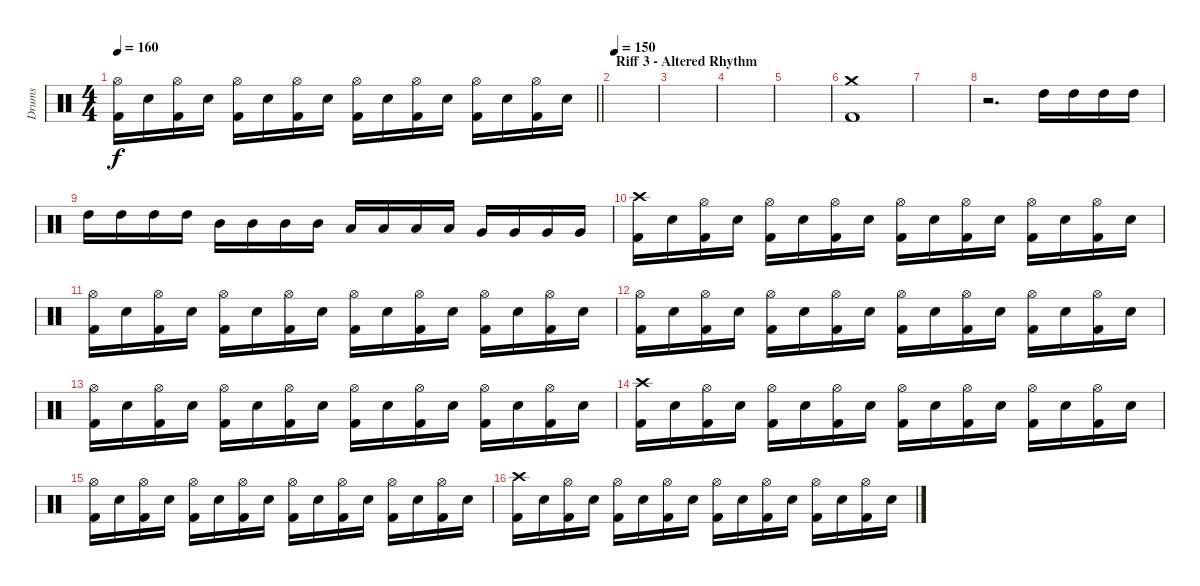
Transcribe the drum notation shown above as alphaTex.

\track ("Drums" "Drums") {instrument percussion}
\staff {score}
\articulation defaults
\ts (4 4)
\tempo 160
\clef neutral
\barLineRight lightlight
\ks c
("Hi-Hat (open)" "Kick (hit) 2").16{dy f} "Electric Snare (hit)".16 ("Hi-Hat (open)" "Kick (hit) 2").16 "Electric Snare (hit)".16 ("Hi-Hat (open)" "Kick (hit) 2").16 "Electric Snare (hit)".16 ("Hi-Hat (open)" "Kick (hit) 2").16 "Electric Snare (hit)".16 ("Hi-Hat (open)" "Kick (hit) 2").16 "Electric Snare (hit)".16 ("Hi-Hat (open)" "Kick (hit) 2").16 "Electric Snare (hit)".16 ("Hi-Hat (open)" "Kick (hit) 2").16 "Electric Snare (hit)".16 ("Hi-Hat (open)" "Kick (hit) 2").16 "Electric Snare (hit)".16 |
\section ("" "Riff 3 - Altered Rhythm")
\tempo 150
|
|
|
|
("Crash medium (hit)" "Kick (hit) 2").1 |
|
r.2{d} "High Tom (hit)".16 "High Tom (hit)".16 "High Tom (hit)".16 "High Tom (hit)".16 |
"High Tom (hit)".16 "High Tom (hit)".16 "High Tom (hit)".16 "High Tom (hit)".16 "Mid Tom (hit)".16 "Mid Tom (hit)".16 "Mid Tom (hit)".16 "Mid Tom (hit)".16 "Low Tom (hit)".16 "Low Tom (hit)".16 "Low Tom (hit)".16 "Low Tom (hit)".16 "Very Low Tom (hit)".16 "Very Low Tom (hit)".16 "Very Low Tom (hit)".16 "Very Low Tom (hit)".16 |
("Crash high (hit)" "Kick (hit) 2").16 "Electric Snare (hit)".16 ("Hi-Hat (open)" "Kick (hit) 2").16 "Electric Snare (hit)".16 ("Hi-Hat (open)" "Kick (hit) 2").16 "Electric Snare (hit)".16 ("Hi-Hat (open)" "Kick (hit) 2").16 "Electric Snare (hit)".16 ("Hi-Hat (open)" "Kick (hit) 2").16 "Electric Snare (hit)".16 ("Hi-Hat (open)" "Kick (hit) 2").16 "Electric Snare (hit)".16 ("Hi-Hat (open)" "Kick (hit) 2").16 "Electric Snare (hit)".16 ("Hi-Hat (open)" "Kick (hit) 2").16 "Electric Snare (hit)".16 |
("Hi-Hat (open)" "Kick (hit) 2").16 "Electric Snare (hit)".16 ("Hi-Hat (open)" "Kick (hit) 2").16 "Electric Snare (hit)".16 ("Hi-Hat (open)" "Kick (hit) 2").16 "Electric Snare (hit)".16 ("Hi-Hat (open)" "Kick (hit) 2").16 "Electric Snare (hit)".16 ("Hi-Hat (open)" "Kick (hit) 2").16 "Electric Snare (hit)".16 ("Hi-Hat (open)" "Kick (hit) 2").16 "Electric Snare (hit)".16 ("Hi-Hat (open)" "Kick (hit) 2").16 "Electric Snare (hit)".16 ("Hi-Hat (open)" "Kick (hit) 2").16 "Electric Snare (hit)".16 |
("Hi-Hat (open)" "Kick (hit) 2").16 "Electric Snare (hit)".16 ("Hi-Hat (open)" "Kick (hit) 2").16 "Electric Snare (hit)".16 ("Hi-Hat (open)" "Kick (hit) 2").16 "Electric Snare (hit)".16 ("Hi-Hat (open)" "Kick (hit) 2").16 "Electric Snare (hit)".16 ("Hi-Hat (open)" "Kick (hit) 2").16 "Electric Snare (hit)".16 ("Hi-Hat (open)" "Kick (hit) 2").16 "Electric Snare (hit)".16 ("Hi-Hat (open)" "Kick (hit) 2").16 "Electric Snare (hit)".16 ("Hi-Hat (open)" "Kick (hit) 2").16 "Electric Snare (hit)".16 |
("Hi-Hat (open)" "Kick (hit) 2").16 "Electric Snare (hit)".16 ("Hi-Hat (open)" "Kick (hit) 2").16 "Electric Snare (hit)".16 ("Hi-Hat (open)" "Kick (hit) 2").16 "Electric Snare (hit)".16 ("Hi-Hat (open)" "Kick (hit) 2").16 "Electric Snare (hit)".16 ("Hi-Hat (open)" "Kick (hit) 2").16 "Electric Snare (hit)".16 ("Hi-Hat (open)" "Kick (hit) 2").16 "Electric Snare (hit)".16 ("Hi-Hat (open)" "Kick (hit) 2").16 "Electric Snare (hit)".16 ("Hi-Hat (open)" "Kick (hit) 2").16 "Electric Snare (hit)".16 |
("Crash high (hit)" "Kick (hit) 2").16 "Electric Snare (hit)".16 ("Hi-Hat (open)" "Kick (hit) 2").16 "Electric Snare (hit)".16 ("Hi-Hat (open)" "Kick (hit) 2").16 "Electric Snare (hit)".16 ("Hi-Hat (open)" "Kick (hit) 2").16 "Electric Snare (hit)".16 ("Hi-Hat (open)" "Kick (hit) 2").16 "Electric Snare (hit)".16 ("Hi-Hat (open)" "Kick (hit) 2").16 "Electric Snare (hit)".16 ("Hi-Hat (open)" "Kick (hit) 2").16 "Electric Snare (hit)".16 ("Hi-Hat (open)" "Kick (hit) 2").16 "Electric Snare (hit)".16 |
("Hi-Hat (open)" "Kick (hit) 2").16 "Electric Snare (hit)".16 ("Hi-Hat (open)" "Kick (hit) 2").16 "Electric Snare (hit)".16 ("Hi-Hat (open)" "Kick (hit) 2").16 "Electric Snare (hit)".16 ("Hi-Hat (open)" "Kick (hit) 2").16 "Electric Snare (hit)".16 ("Hi-Hat (open)" "Kick (hit) 2").16 "Electric Snare (hit)".16 ("Hi-Hat (open)" "Kick (hit) 2").16 "Electric Snare (hit)".16 ("Hi-Hat (open)" "Kick (hit) 2").16 "Electric Snare (hit)".16 ("Hi-Hat (open)" "Kick (hit) 2").16 "Electric Snare (hit)".16 |
("Crash high (hit)" "Kick (hit) 2").16 "Electric Snare (hit)".16 ("Hi-Hat (open)" "Kick (hit) 2").16 "Electric Snare (hit)".16 ("Hi-Hat (open)" "Kick (hit) 2").16 "Electric Snare (hit)".16 ("Hi-Hat (open)" "Kick (hit) 2").16 "Electric Snare (hit)".16 ("Hi-Hat (open)" "Kick (hit) 2").16 "Electric Snare (hit)".16 ("Hi-Hat (open)" "Kick (hit) 2").16 "Electric Snare (hit)".16 ("Hi-Hat (open)" "Kick (hit) 2").16 "Electric Snare (hit)".16 ("Hi-Hat (open)" "Kick (hit) 2").16 "Electric Snare (hit)".16
